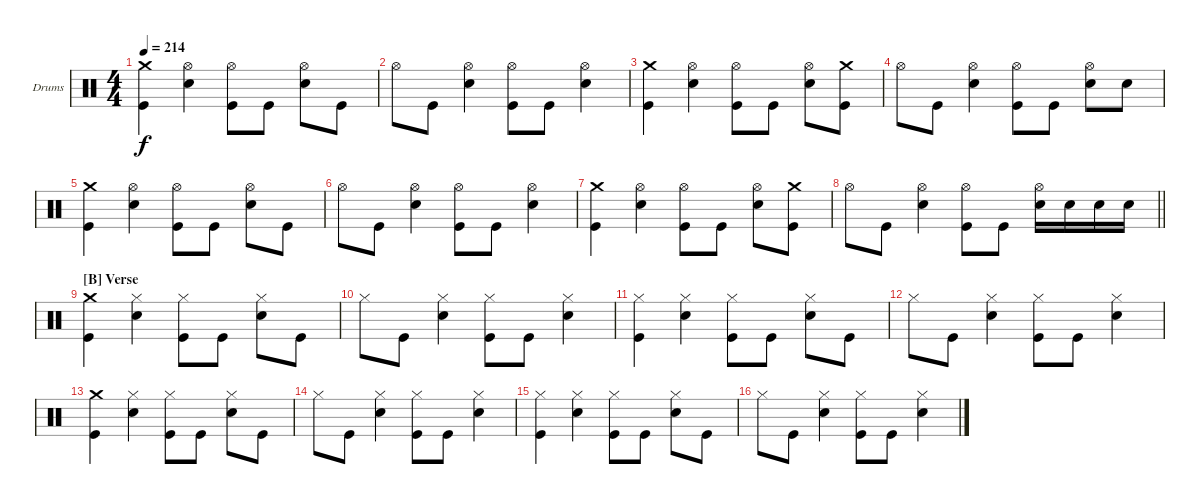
\bracketExtendMode groupsimilarinstruments
\firstSystemTrackNameOrientation horizontal
\otherSystemsTrackNameOrientation horizontal
\track ("Drumkit" "Drums") {instrument percussion}
\staff {score}
\articulation defaults
\ts (4 4)
\tempo 214
\clef neutral
\ks c
("Kick (hit)" "Crash medium (hit)").4{dy f} ("Snare (hit) 2" "Hi-Hat (open)").4 ("Kick (hit)" "Hi-Hat (open)").8 "Kick (hit)".8 ("Snare (hit) 2" "Hi-Hat (open)").8 "Kick (hit)".8 |
"Hi-Hat (open)".8 "Kick (hit)".8 ("Snare (hit) 2" "Hi-Hat (open)").4 ("Kick (hit)" "Hi-Hat (open)").8 "Kick (hit)".8 ("Snare (hit) 2" "Hi-Hat (open)").4 |
("Kick (hit)" "Crash medium (hit)").4 ("Snare (hit) 2" "Hi-Hat (open)").4 ("Kick (hit)" "Hi-Hat (open)").8 "Kick (hit)".8 ("Snare (hit) 2" "Hi-Hat (open)").8 ("Kick (hit)" "Crash medium (hit)").8 |
"Hi-Hat (open)".8 "Kick (hit)".8 ("Snare (hit) 2" "Hi-Hat (open)").4 ("Kick (hit)" "Hi-Hat (open)").8 "Kick (hit)".8 ("Snare (hit) 2" "Hi-Hat (open)").8 "Snare (hit) 2".8 |
("Kick (hit)" "Crash medium (hit)").4 ("Snare (hit) 2" "Hi-Hat (open)").4 ("Kick (hit)" "Hi-Hat (open)").8 "Kick (hit)".8 ("Snare (hit) 2" "Hi-Hat (open)").8 "Kick (hit)".8 |
"Hi-Hat (open)".8 "Kick (hit)".8 ("Snare (hit) 2" "Hi-Hat (open)").4 ("Kick (hit)" "Hi-Hat (open)").8 "Kick (hit)".8 ("Snare (hit) 2" "Hi-Hat (open)").4 |
("Kick (hit)" "Crash medium (hit)").4 ("Snare (hit) 2" "Hi-Hat (open)").4 ("Kick (hit)" "Hi-Hat (open)").8 "Kick (hit)".8 ("Snare (hit) 2" "Hi-Hat (open)").8 ("Kick (hit)" "Crash medium (hit)").8 |
\barLineRight lightlight "Hi-Hat (open)".8 "Kick (hit)".8
("Snare (hit) 2" "Hi-Hat (open)").4 ("Kick (hit)" "Hi-Hat (open)").8 "Kick (hit)".8 ("Snare (hit) 2" "Hi-Hat (open)").16 "Snare (hit) 2".16 "Snare (hit) 2".16 "Snare (hit) 2".16 |
\section ("B" "Verse")
("Kick (hit)" "Crash medium (hit)").4 ("Snare (hit) 2" "Hi-Hat (closed)").4 ("Kick (hit)" "Hi-Hat (closed)").8 "Kick (hit)".8 ("Snare (hit) 2" "Hi-Hat (closed)").8 "Kick (hit)".8 |
"Hi-Hat (closed)".8 "Kick (hit)".8 ("Snare (hit) 2" "Hi-Hat (closed)").4 ("Kick (hit)" "Hi-Hat (closed)").8 "Kick (hit)".8 ("Snare (hit) 2" "Hi-Hat (closed)").4 |
("Kick (hit)" "Hi-Hat (closed)").4 ("Snare (hit) 2" "Hi-Hat (closed)").4 ("Kick (hit)" "Hi-Hat (closed)").8 "Kick (hit)".8 ("Snare (hit) 2" "Hi-Hat (closed)").8 "Kick (hit)".8 |
"Hi-Hat (closed)".8 "Kick (hit)".8 ("Snare (hit) 2" "Hi-Hat (closed)").4 ("Kick (hit)" "Hi-Hat (closed)").8 "Kick (hit)".8 ("Snare (hit) 2" "Hi-Hat (closed)").4 |
("Kick (hit)" "Crash medium (hit)").4 ("Snare (hit) 2" "Hi-Hat (closed)").4 ("Kick (hit)" "Hi-Hat (closed)").8 "Kick (hit)".8 ("Snare (hit) 2" "Hi-Hat (closed)").8 "Kick (hit)".8 |
"Hi-Hat (closed)".8 "Kick (hit)".8 ("Snare (hit) 2" "Hi-Hat (closed)").4 ("Kick (hit)" "Hi-Hat (closed)").8 "Kick (hit)".8 ("Snare (hit) 2" "Hi-Hat (closed)").4 |
("Kick (hit)" "Hi-Hat (closed)").4 ("Snare (hit) 2" "Hi-Hat (closed)").4 ("Kick (hit)" "Hi-Hat (closed)").8 "Kick (hit)".8 ("Snare (hit) 2" "Hi-Hat (closed)").8 "Kick (hit)".8 |
"Hi-Hat (closed)".8 "Kick (hit)".8 ("Snare (hit) 2" "Hi-Hat (closed)").4 ("Kick (hit)" "Hi-Hat (closed)").8 "Kick (hit)".8 ("Snare (hit) 2" "Hi-Hat (closed)").4
